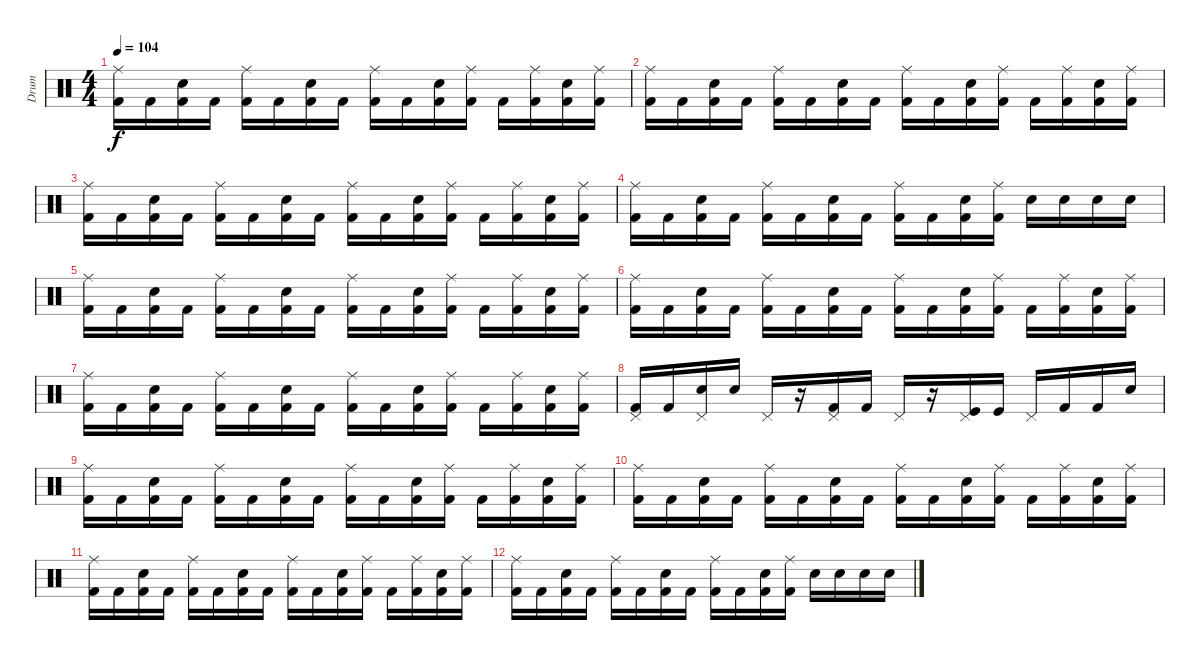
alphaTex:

\track ("Drum" "Drum") {instrument percussion}
\staff {score}
\articulation defaults
\ts (4 4)
\tempo 104
\clef neutral
\ks c
("Kick (hit) 2" "Ride (middle)").16{dy f} "Kick (hit) 2".16 ("Snare (hit) 2" "Kick (hit) 2").16 "Kick (hit) 2".16 ("Kick (hit) 2" "Ride (middle)").16 "Kick (hit) 2".16 ("Snare (hit) 2" "Kick (hit) 2").16 "Kick (hit) 2".16 ("Kick (hit) 2" "Ride (middle)").16 "Kick (hit) 2".16 ("Snare (hit) 2" "Kick (hit) 2").16 ("Kick (hit) 2" "Ride (middle)").16 "Kick (hit) 2".16 ("Kick (hit) 2" "Ride (middle)").16 ("Snare (hit) 2" "Kick (hit) 2").16 ("Kick (hit) 2" "Ride (middle)").16 |
("Kick (hit) 2" "Ride (middle)").16 "Kick (hit) 2".16 ("Snare (hit) 2" "Kick (hit) 2").16 "Kick (hit) 2".16 ("Kick (hit) 2" "Ride (middle)").16 "Kick (hit) 2".16 ("Snare (hit) 2" "Kick (hit) 2").16 "Kick (hit) 2".16 ("Kick (hit) 2" "Ride (middle)").16 "Kick (hit) 2".16 ("Snare (hit) 2" "Kick (hit) 2").16 ("Kick (hit) 2" "Ride (middle)").16 "Kick (hit) 2".16 ("Kick (hit) 2" "Ride (middle)").16 ("Snare (hit) 2" "Kick (hit) 2").16 ("Kick (hit) 2" "Ride (middle)").16 |
("Kick (hit) 2" "Ride (middle)").16 "Kick (hit) 2".16 ("Snare (hit) 2" "Kick (hit) 2").16 "Kick (hit) 2".16 ("Kick (hit) 2" "Ride (middle)").16 "Kick (hit) 2".16 ("Snare (hit) 2" "Kick (hit) 2").16 "Kick (hit) 2".16 ("Kick (hit) 2" "Ride (middle)").16 "Kick (hit) 2".16 ("Snare (hit) 2" "Kick (hit) 2").16 ("Kick (hit) 2" "Ride (middle)").16 "Kick (hit) 2".16 ("Kick (hit) 2" "Ride (middle)").16 ("Snare (hit) 2" "Kick (hit) 2").16 ("Kick (hit) 2" "Ride (middle)").16 |
("Kick (hit) 2" "Ride (middle)").16 "Kick (hit) 2".16 ("Snare (hit) 2" "Kick (hit) 2").16 "Kick (hit) 2".16 ("Kick (hit) 2" "Ride (middle)").16 "Kick (hit) 2".16 ("Snare (hit) 2" "Kick (hit) 2").16 "Kick (hit) 2".16 ("Kick (hit) 2" "Ride (middle)").16 "Kick (hit) 2".16 ("Snare (hit) 2" "Kick (hit) 2").16 ("Kick (hit) 2" "Ride (middle)").16 "Snare (hit) 2".16 "Snare (hit) 2".16 "Snare (hit) 2".16 "Snare (hit) 2".16 |
("Kick (hit) 2" "Ride (middle)").16 "Kick (hit) 2".16 ("Snare (hit) 2" "Kick (hit) 2").16 "Kick (hit) 2".16 ("Kick (hit) 2" "Ride (middle)").16 "Kick (hit) 2".16 ("Snare (hit) 2" "Kick (hit) 2").16 "Kick (hit) 2".16 ("Kick (hit) 2" "Ride (middle)").16 "Kick (hit) 2".16 ("Snare (hit) 2" "Kick (hit) 2").16 ("Kick (hit) 2" "Ride (middle)").16 "Kick (hit) 2".16 ("Kick (hit) 2" "Ride (middle)").16 ("Snare (hit) 2" "Kick (hit) 2").16 ("Kick (hit) 2" "Ride (middle)").16 |
("Kick (hit) 2" "Ride (middle)").16 "Kick (hit) 2".16 ("Snare (hit) 2" "Kick (hit) 2").16 "Kick (hit) 2".16 ("Kick (hit) 2" "Ride (middle)").16 "Kick (hit) 2".16 ("Snare (hit) 2" "Kick (hit) 2").16 "Kick (hit) 2".16 ("Kick (hit) 2" "Ride (middle)").16 "Kick (hit) 2".16 ("Snare (hit) 2" "Kick (hit) 2").16 ("Kick (hit) 2" "Ride (middle)").16 "Kick (hit) 2".16 ("Kick (hit) 2" "Ride (middle)").16 ("Snare (hit) 2" "Kick (hit) 2").16 ("Kick (hit) 2" "Ride (middle)").16 |
("Kick (hit) 2" "Ride (middle)").16 "Kick (hit) 2".16 ("Snare (hit) 2" "Kick (hit) 2").16 "Kick (hit) 2".16 ("Kick (hit) 2" "Ride (middle)").16 "Kick (hit) 2".16 ("Snare (hit) 2" "Kick (hit) 2").16 "Kick (hit) 2".16 ("Kick (hit) 2" "Ride (middle)").16 "Kick (hit) 2".16 ("Snare (hit) 2" "Kick (hit) 2").16 ("Kick (hit) 2" "Ride (middle)").16 "Kick (hit) 2".16 ("Kick (hit) 2" "Ride (middle)").16 ("Snare (hit) 2" "Kick (hit) 2").16 ("Kick (hit) 2" "Ride (middle)").16 |
("Kick (hit) 2" "Pedal Hi-Hat (hit)").16 "Kick (hit) 2".16 ("Snare (hit) 2" "Pedal Hi-Hat (hit)").16 "Snare (hit) 2".16 "Pedal Hi-Hat (hit)".16 r.16 ("Kick (hit) 2" "Pedal Hi-Hat (hit)").16 "Kick (hit) 2".16 "Pedal Hi-Hat (hit)".16 r.16 ("Kick (hit)" "Pedal Hi-Hat (hit)").16 "Kick (hit)".16 "Pedal Hi-Hat (hit)".16 "Kick (hit) 2".16 "Kick (hit) 2".16 "Snare (hit) 2".16 |
("Kick (hit) 2" "Ride (middle)").16 "Kick (hit) 2".16 ("Snare (hit) 2" "Kick (hit) 2").16 "Kick (hit) 2".16 ("Kick (hit) 2" "Ride (middle)").16 "Kick (hit) 2".16 ("Snare (hit) 2" "Kick (hit) 2").16 "Kick (hit) 2".16 ("Kick (hit) 2" "Ride (middle)").16 "Kick (hit) 2".16 ("Snare (hit) 2" "Kick (hit) 2").16 ("Kick (hit) 2" "Ride (middle)").16 "Kick (hit) 2".16 ("Kick (hit) 2" "Ride (middle)").16 ("Snare (hit) 2" "Kick (hit) 2").16 ("Kick (hit) 2" "Ride (middle)").16 |
("Kick (hit) 2" "Ride (middle)").16 "Kick (hit) 2".16 ("Snare (hit) 2" "Kick (hit) 2").16 "Kick (hit) 2".16 ("Kick (hit) 2" "Ride (middle)").16 "Kick (hit) 2".16 ("Snare (hit) 2" "Kick (hit) 2").16 "Kick (hit) 2".16 ("Kick (hit) 2" "Ride (middle)").16 "Kick (hit) 2".16 ("Snare (hit) 2" "Kick (hit) 2").16 ("Kick (hit) 2" "Ride (middle)").16 "Kick (hit) 2".16 ("Kick (hit) 2" "Ride (middle)").16 ("Snare (hit) 2" "Kick (hit) 2").16 ("Kick (hit) 2" "Ride (middle)").16 |
("Kick (hit) 2" "Ride (middle)").16 "Kick (hit) 2".16 ("Snare (hit) 2" "Kick (hit) 2").16 "Kick (hit) 2".16 ("Kick (hit) 2" "Ride (middle)").16 "Kick (hit) 2".16 ("Snare (hit) 2" "Kick (hit) 2").16 "Kick (hit) 2".16 ("Kick (hit) 2" "Ride (middle)").16 "Kick (hit) 2".16 ("Snare (hit) 2" "Kick (hit) 2").16 ("Kick (hit) 2" "Ride (middle)").16 "Kick (hit) 2".16 ("Kick (hit) 2" "Ride (middle)").16 ("Snare (hit) 2" "Kick (hit) 2").16 ("Kick (hit) 2" "Ride (middle)").16 |
("Kick (hit) 2" "Ride (middle)").16 "Kick (hit) 2".16 ("Snare (hit) 2" "Kick (hit) 2").16 "Kick (hit) 2".16 ("Kick (hit) 2" "Ride (middle)").16 "Kick (hit) 2".16 ("Snare (hit) 2" "Kick (hit) 2").16 "Kick (hit) 2".16 ("Kick (hit) 2" "Ride (middle)").16 "Kick (hit) 2".16 ("Snare (hit) 2" "Kick (hit) 2").16 ("Kick (hit) 2" "Ride (middle)").16 "Snare (hit) 2".16 "Snare (hit) 2".16 "Snare (hit) 2".16 "Snare (hit) 2".16
